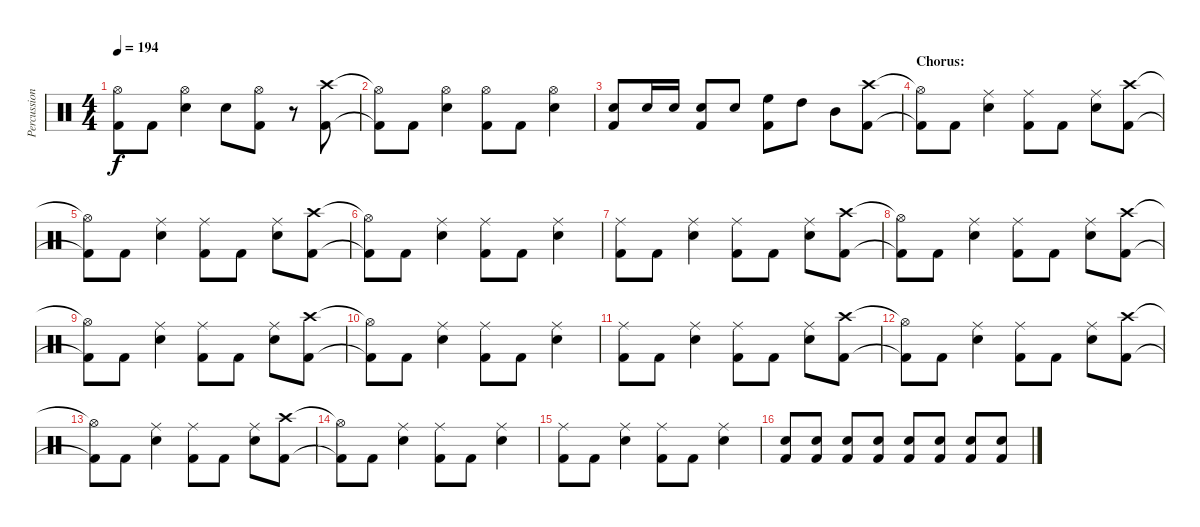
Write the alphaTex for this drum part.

\track ("Percussion" "Percussion") {instrument percussion}
\staff {score}
\articulation defaults
\ts (4 4)
\tempo 194
\clef neutral
\ks c
("Hi-Hat (open)" "Kick (hit) 2").8{dy f} "Kick (hit) 2".8 ("Hi-Hat (open)" "Electric Snare (hit)").4 "Electric Snare (hit)".8 ("Hi-Hat (open)" "Kick (hit) 2").8 r.8 ("Crash high (hit)" "Kick (hit) 2").8 |
("Hi-Hat (open)"{t} "Kick (hit) 2"{t}).8 "Kick (hit) 2".8 ("Hi-Hat (open)" "Electric Snare (hit)").4 ("Hi-Hat (open)" "Kick (hit) 2").8 "Kick (hit) 2".8 ("Hi-Hat (open)" "Electric Snare (hit)").4 |
("Electric Snare (hit)" "Kick (hit) 2").8 "Electric Snare (hit)".16 "Electric Snare (hit)".16 ("Electric Snare (hit)" "Kick (hit) 2").8 "Electric Snare (hit)".8 ("High Floor Tom (hit)" "Kick (hit) 2").8 "High Tom (hit)".8 "Mid Tom (hit)".8 ("Crash high (hit)" "Kick (hit) 2").8 |
\section ("" "Chorus:")
("Hi-Hat (open)"{t} "Kick (hit) 2"{t}).8 "Kick (hit) 2".8 ("Ride (middle)" "Electric Snare (hit)").4 ("Ride (middle)" "Kick (hit) 2").8 "Kick (hit) 2".8 ("Ride (middle)" "Electric Snare (hit)").8 ("Crash high (hit)" "Kick (hit) 2").8 |
("Hi-Hat (open)"{t} "Kick (hit) 2"{t}).8 "Kick (hit) 2".8 ("Ride (middle)" "Electric Snare (hit)").4 ("Ride (middle)" "Kick (hit) 2").8 "Kick (hit) 2".8 ("Ride (middle)" "Electric Snare (hit)").8 ("Crash high (hit)" "Kick (hit) 2").8 |
("Hi-Hat (open)"{t} "Kick (hit) 2"{t}).8 "Kick (hit) 2".8 ("Ride (middle)" "Electric Snare (hit)").4 ("Ride (middle)" "Kick (hit) 2").8 "Kick (hit) 2".8 ("Ride (middle)" "Electric Snare (hit)").4 |
("Ride (middle)" "Kick (hit) 2").8 "Kick (hit) 2".8 ("Ride (middle)" "Electric Snare (hit)").4 ("Ride (middle)" "Kick (hit) 2").8 "Kick (hit) 2".8 ("Ride (middle)" "Electric Snare (hit)").8 ("Crash high (hit)" "Kick (hit) 2").8 |
("Hi-Hat (open)"{t} "Kick (hit) 2"{t}).8 "Kick (hit) 2".8 ("Ride (middle)" "Electric Snare (hit)").4 ("Ride (middle)" "Kick (hit) 2").8 "Kick (hit) 2".8 ("Ride (middle)" "Electric Snare (hit)").8 ("Crash high (hit)" "Kick (hit) 2").8 |
("Hi-Hat (open)"{t} "Kick (hit) 2"{t}).8 "Kick (hit) 2".8 ("Ride (middle)" "Electric Snare (hit)").4 ("Ride (middle)" "Kick (hit) 2").8 "Kick (hit) 2".8 ("Ride (middle)" "Electric Snare (hit)").8 ("Crash high (hit)" "Kick (hit) 2").8 |
("Hi-Hat (open)"{t} "Kick (hit) 2"{t}).8 "Kick (hit) 2".8 ("Ride (middle)" "Electric Snare (hit)").4 ("Ride (middle)" "Kick (hit) 2").8 "Kick (hit) 2".8 ("Ride (middle)" "Electric Snare (hit)").4 |
("Ride (middle)" "Kick (hit) 2").8 "Kick (hit) 2".8 ("Ride (middle)" "Electric Snare (hit)").4 ("Ride (middle)" "Kick (hit) 2").8 "Kick (hit) 2".8 ("Ride (middle)" "Electric Snare (hit)").8 ("Crash high (hit)" "Kick (hit) 2").8 |
("Hi-Hat (open)"{t} "Kick (hit) 2"{t}).8 "Kick (hit) 2".8 ("Ride (middle)" "Electric Snare (hit)").4 ("Ride (middle)" "Kick (hit) 2").8 "Kick (hit) 2".8 ("Ride (middle)" "Electric Snare (hit)").8 ("Crash high (hit)" "Kick (hit) 2").8 |
("Hi-Hat (open)"{t} "Kick (hit) 2"{t}).8 "Kick (hit) 2".8 ("Ride (middle)" "Electric Snare (hit)").4 ("Ride (middle)" "Kick (hit) 2").8 "Kick (hit) 2".8 ("Ride (middle)" "Electric Snare (hit)").8 ("Crash high (hit)" "Kick (hit) 2").8 |
("Hi-Hat (open)"{t} "Kick (hit) 2"{t}).8 "Kick (hit) 2".8 ("Ride (middle)" "Electric Snare (hit)").4 ("Ride (middle)" "Kick (hit) 2").8 "Kick (hit) 2".8 ("Ride (middle)" "Electric Snare (hit)").4 |
("Ride (middle)" "Kick (hit) 2").8 "Kick (hit) 2".8 ("Ride (middle)" "Electric Snare (hit)").4 ("Ride (middle)" "Kick (hit) 2").8 "Kick (hit) 2".8 ("Ride (middle)" "Electric Snare (hit)").4 |
("Electric Snare (hit)" "Kick (hit) 2").8 ("Electric Snare (hit)" "Kick (hit) 2").8 ("Electric Snare (hit)" "Kick (hit) 2").8 ("Electric Snare (hit)" "Kick (hit) 2").8 ("Electric Snare (hit)" "Kick (hit) 2").8 ("Electric Snare (hit)" "Kick (hit) 2").8 ("Electric Snare (hit)" "Kick (hit) 2").8 ("Electric Snare (hit)" "Kick (hit) 2").8
